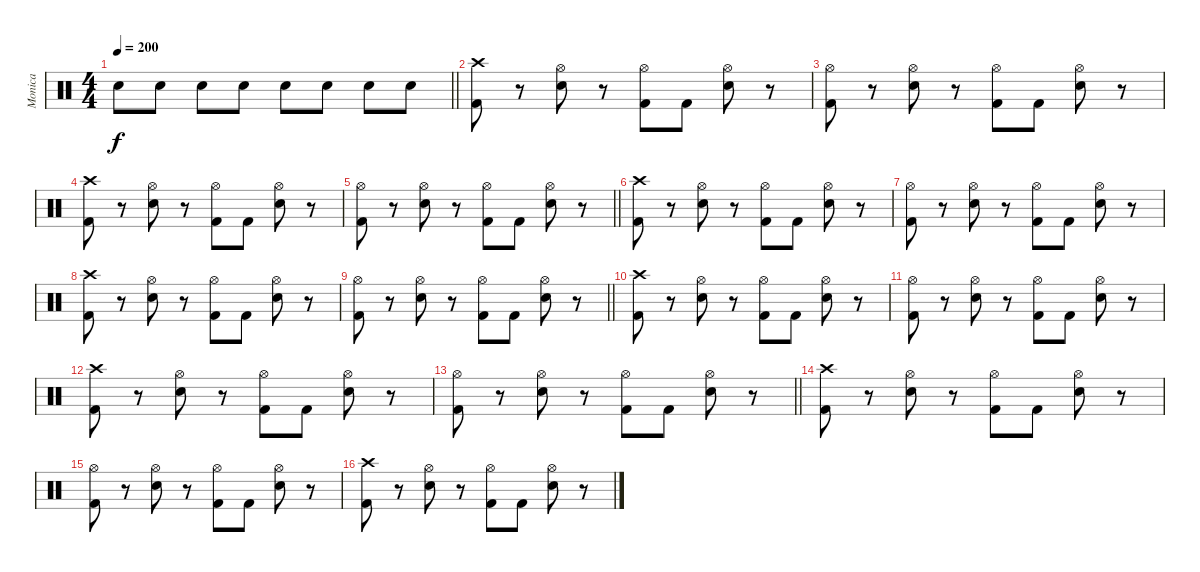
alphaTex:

\track ("Monica" "Monica") {instrument percussion}
\staff {score}
\articulation defaults
\ts (4 4)
\tempo 200
\clef neutral
\barLineRight lightlight
\ks c "Snare (hit) 2".8{dy f} "Snare (hit) 2".8 "Snare (hit) 2".8 "Snare (hit) 2".8 "Snare (hit) 2".8 "Snare (hit) 2".8 "Snare (hit) 2".8 "Snare (hit) 2".8
|
("Crash high (hit)" "Kick (hit) 2").8 r.8 ("Hi-Hat (open)" "Snare (hit) 2").8 r.8 ("Hi-Hat (open)" "Kick (hit) 2").8 "Kick (hit) 2".8 ("Hi-Hat (open)" "Snare (hit) 2").8 r.8 |
("Hi-Hat (open)" "Kick (hit) 2").8 r.8 ("Hi-Hat (open)" "Snare (hit) 2").8 r.8 ("Hi-Hat (open)" "Kick (hit) 2").8 "Kick (hit) 2".8 ("Hi-Hat (open)" "Snare (hit) 2").8 r.8 |
("Crash high (hit)" "Kick (hit) 2").8 r.8 ("Hi-Hat (open)" "Snare (hit) 2").8 r.8 ("Hi-Hat (open)" "Kick (hit) 2").8 "Kick (hit) 2".8 ("Hi-Hat (open)" "Snare (hit) 2").8 r.8 |
\barLineRight lightlight
("Hi-Hat (open)" "Kick (hit) 2").8 r.8 ("Hi-Hat (open)" "Snare (hit) 2").8 r.8 ("Hi-Hat (open)" "Kick (hit) 2").8 "Kick (hit) 2".8 ("Hi-Hat (open)" "Snare (hit) 2").8 r.8 |
("Crash high (hit)" "Kick (hit) 2").8 r.8 ("Hi-Hat (open)" "Snare (hit) 2").8 r.8 ("Hi-Hat (open)" "Kick (hit) 2").8 "Kick (hit) 2".8 ("Hi-Hat (open)" "Snare (hit) 2").8 r.8 |
("Hi-Hat (open)" "Kick (hit) 2").8 r.8 ("Hi-Hat (open)" "Snare (hit) 2").8 r.8 ("Hi-Hat (open)" "Kick (hit) 2").8 "Kick (hit) 2".8 ("Hi-Hat (open)" "Snare (hit) 2").8 r.8 |
("Crash high (hit)" "Kick (hit) 2").8 r.8 ("Hi-Hat (open)" "Snare (hit) 2").8 r.8 ("Hi-Hat (open)" "Kick (hit) 2").8 "Kick (hit) 2".8 ("Hi-Hat (open)" "Snare (hit) 2").8 r.8 |
\barLineRight lightlight
("Hi-Hat (open)" "Kick (hit) 2").8 r.8 ("Hi-Hat (open)" "Snare (hit) 2").8 r.8 ("Hi-Hat (open)" "Kick (hit) 2").8 "Kick (hit) 2".8 ("Hi-Hat (open)" "Snare (hit) 2").8 r.8 |
("Crash high (hit)" "Kick (hit) 2").8 r.8 ("Hi-Hat (open)" "Snare (hit) 2").8 r.8 ("Hi-Hat (open)" "Kick (hit) 2").8 "Kick (hit) 2".8 ("Hi-Hat (open)" "Snare (hit) 2").8 r.8 |
("Hi-Hat (open)" "Kick (hit) 2").8 r.8 ("Hi-Hat (open)" "Snare (hit) 2").8 r.8 ("Hi-Hat (open)" "Kick (hit) 2").8 "Kick (hit) 2".8 ("Hi-Hat (open)" "Snare (hit) 2").8 r.8 |
("Crash high (hit)" "Kick (hit) 2").8 r.8 ("Hi-Hat (open)" "Snare (hit) 2").8 r.8 ("Hi-Hat (open)" "Kick (hit) 2").8 "Kick (hit) 2".8 ("Hi-Hat (open)" "Snare (hit) 2").8 r.8 |
\barLineRight lightlight
("Hi-Hat (open)" "Kick (hit) 2").8 r.8 ("Hi-Hat (open)" "Snare (hit) 2").8 r.8 ("Hi-Hat (open)" "Kick (hit) 2").8 "Kick (hit) 2".8 ("Hi-Hat (open)" "Snare (hit) 2").8 r.8 |
("Crash high (hit)" "Kick (hit) 2").8 r.8 ("Hi-Hat (open)" "Snare (hit) 2").8 r.8 ("Hi-Hat (open)" "Kick (hit) 2").8 "Kick (hit) 2".8 ("Hi-Hat (open)" "Snare (hit) 2").8 r.8 |
("Hi-Hat (open)" "Kick (hit) 2").8 r.8 ("Hi-Hat (open)" "Snare (hit) 2").8 r.8 ("Hi-Hat (open)" "Kick (hit) 2").8 "Kick (hit) 2".8 ("Hi-Hat (open)" "Snare (hit) 2").8 r.8 |
("Crash high (hit)" "Kick (hit) 2").8 r.8 ("Hi-Hat (open)" "Snare (hit) 2").8 r.8 ("Hi-Hat (open)" "Kick (hit) 2").8 "Kick (hit) 2".8 ("Hi-Hat (open)" "Snare (hit) 2").8 r.8
